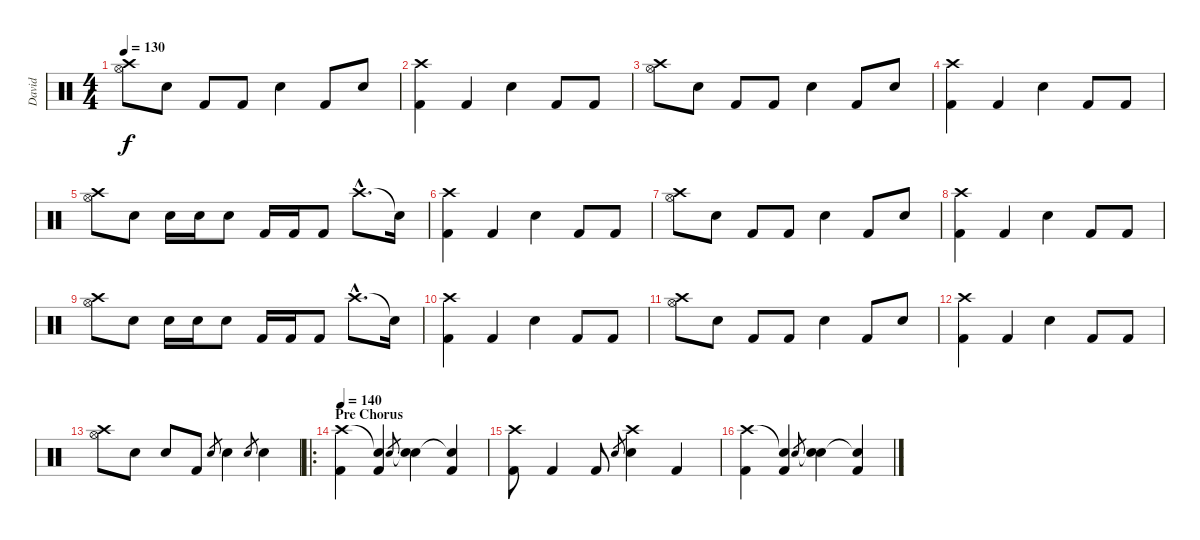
\track ("David" "David") {instrument percussion}
\staff {score}
\articulation defaults
\ts (4 4)
\tempo 130
\clef neutral
\ks c
("Crash high (hit)" "Hi-Hat (open)").8{dy f} "Electric Snare (hit)".8 "Kick (hit) 2".8 "Kick (hit) 2".8 "Electric Snare (hit)".4 "Kick (hit) 2".8 "Snare (hit) 2".8 |
("Kick (hit) 2" "Crash high (hit)").4 "Kick (hit) 2".4 "Electric Snare (hit)".4 "Kick (hit) 2".8 "Kick (hit) 2".8 |
("Crash high (hit)" "Hi-Hat (open)").8 "Electric Snare (hit)".8 "Kick (hit) 2".8 "Kick (hit) 2".8 "Electric Snare (hit)".4 "Kick (hit) 2".8 "Snare (hit) 2".8 |
("Kick (hit) 2" "Crash high (hit)").4 "Kick (hit) 2".4 "Electric Snare (hit)".4 "Kick (hit) 2".8 "Kick (hit) 2".8 |
("Crash high (hit)" "Hi-Hat (open)").8 "Electric Snare (hit)".8 "Electric Snare (hit)".16 "Electric Snare (hit)".16 "Electric Snare (hit)".8 "Kick (hit) 2".16 "Kick (hit) 2".16 "Kick (hit) 2".8 "Crash high (hit)"{hac}.8{d} "Snare (hit)"{t}.16 |
("Kick (hit) 2" "Crash high (hit)").4 "Kick (hit) 2".4 "Electric Snare (hit)".4 "Kick (hit) 2".8 "Kick (hit) 2".8 |
("Crash high (hit)" "Hi-Hat (open)").8 "Electric Snare (hit)".8 "Kick (hit) 2".8 "Kick (hit) 2".8 "Electric Snare (hit)".4 "Kick (hit) 2".8 "Snare (hit) 2".8 |
("Kick (hit) 2" "Crash high (hit)").4 "Kick (hit) 2".4 "Electric Snare (hit)".4 "Kick (hit) 2".8 "Kick (hit) 2".8 |
("Crash high (hit)" "Hi-Hat (open)").8 "Electric Snare (hit)".8 "Electric Snare (hit)".16 "Electric Snare (hit)".16 "Electric Snare (hit)".8 "Kick (hit) 2".16 "Kick (hit) 2".16 "Kick (hit) 2".8 "Crash high (hit)"{hac}.8{d} "Snare (hit)"{t}.16 |
("Kick (hit) 2" "Crash high (hit)").4 "Kick (hit) 2".4 "Electric Snare (hit)".4 "Kick (hit) 2".8 "Kick (hit) 2".8 |
("Crash high (hit)" "Hi-Hat (open)").8 "Electric Snare (hit)".8 "Kick (hit) 2".8 "Kick (hit) 2".8 "Electric Snare (hit)".4 "Kick (hit) 2".8 "Snare (hit) 2".8 |
("Kick (hit) 2" "Crash high (hit)").4 "Kick (hit) 2".4 "Electric Snare (hit)".4 "Kick (hit) 2".8 "Kick (hit) 2".8 |
("Crash high (hit)" "Hi-Hat (open)").8 "Electric Snare (hit)".8 "Electric Snare (hit)".8 "Kick (hit) 2".8 "Electric Snare (hit)".8{gr} "Electric Snare (hit)".4 "Electric Snare (hit)".8{gr} "Electric Snare (hit)".4 |
\ro
\section ("" "Pre Chorus")
\tempo 140
("Crash high (hit)" "Kick (hit) 2").4 ("Snare (hit)"{t} "Kick (hit) 2").4 "Snare (hit) 2".8{gr} ("Snare (hit)"{t} "Electric Snare (hit)").4 ("Snare (hit)"{t} "Kick (hit) 2").4 |
("Crash high (hit)" "Kick (hit) 2").8 "Kick (hit) 2".4 "Kick (hit) 2".8 "Snare (hit) 2".8{gr} ("Crash high (hit)" "Electric Snare (hit)").4 "Kick (hit) 2".4 |
("Crash high (hit)" "Kick (hit) 2").4 ("Snare (hit)"{t} "Kick (hit) 2").4 "Snare (hit) 2".8{gr} ("Snare (hit)"{t} "Electric Snare (hit)").4 ("Snare (hit)"{t} "Kick (hit) 2").4
